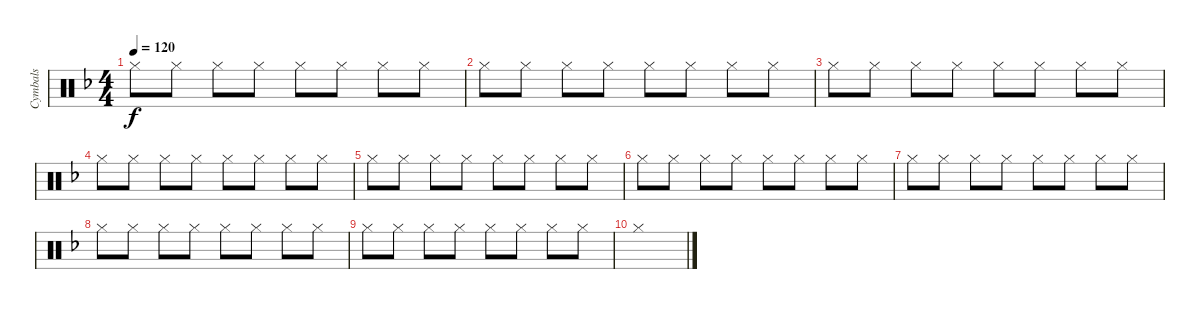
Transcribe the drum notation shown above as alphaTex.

\track ("Cymbals" "Cymbals") {instrument percussion}
\staff {score}
\articulation defaults
\ts (4 4)
\tempo 120
\clef neutral
\ks dminor "Hi-Hat (closed)".8{dy f} "Hi-Hat (closed)".8 "Hi-Hat (closed)".8 "Hi-Hat (closed)".8 "Hi-Hat (closed)".8 "Hi-Hat (closed)".8 "Hi-Hat (closed)".8 "Hi-Hat (closed)".8
|
"Hi-Hat (closed)".8 "Hi-Hat (closed)".8 "Hi-Hat (closed)".8 "Hi-Hat (closed)".8 "Hi-Hat (closed)".8 "Hi-Hat (closed)".8 "Hi-Hat (closed)".8 "Hi-Hat (closed)".8 |
"Hi-Hat (closed)".8 "Hi-Hat (closed)".8 "Hi-Hat (closed)".8 "Hi-Hat (closed)".8 "Hi-Hat (closed)".8 "Hi-Hat (closed)".8 "Hi-Hat (closed)".8 "Hi-Hat (closed)".8 |
"Hi-Hat (closed)".8 "Hi-Hat (closed)".8 "Hi-Hat (closed)".8 "Hi-Hat (closed)".8 "Hi-Hat (closed)".8 "Hi-Hat (closed)".8 "Hi-Hat (closed)".8 "Hi-Hat (closed)".8 |
"Hi-Hat (closed)".8 "Hi-Hat (closed)".8 "Hi-Hat (closed)".8 "Hi-Hat (closed)".8 "Hi-Hat (closed)".8 "Hi-Hat (closed)".8 "Hi-Hat (closed)".8 "Hi-Hat (closed)".8 |
"Hi-Hat (closed)".8 "Hi-Hat (closed)".8 "Hi-Hat (closed)".8 "Hi-Hat (closed)".8 "Hi-Hat (closed)".8 "Hi-Hat (closed)".8 "Hi-Hat (closed)".8 "Hi-Hat (closed)".8 |
"Hi-Hat (closed)".8 "Hi-Hat (closed)".8 "Hi-Hat (closed)".8 "Hi-Hat (closed)".8 "Hi-Hat (closed)".8 "Hi-Hat (closed)".8 "Hi-Hat (closed)".8 "Hi-Hat (closed)".8 |
"Hi-Hat (closed)".8 "Hi-Hat (closed)".8 "Hi-Hat (closed)".8 "Hi-Hat (closed)".8 "Hi-Hat (closed)".8 "Hi-Hat (closed)".8 "Hi-Hat (closed)".8 "Hi-Hat (closed)".8 |
"Hi-Hat (closed)".8 "Hi-Hat (closed)".8 "Hi-Hat (closed)".8 "Hi-Hat (closed)".8 "Hi-Hat (closed)".8 "Hi-Hat (closed)".8 "Hi-Hat (closed)".8 "Hi-Hat (closed)".8 |
"Hi-Hat (closed)".1
